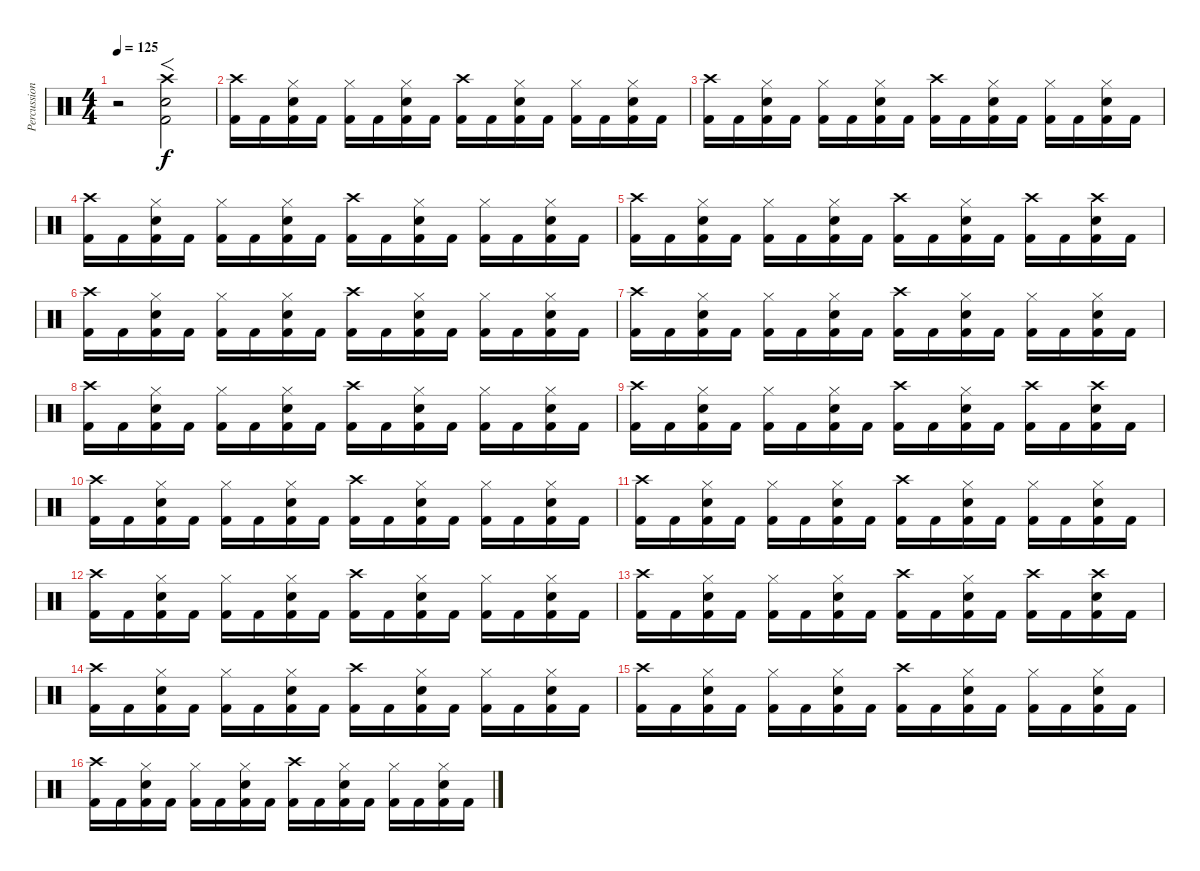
\track ("Percussion" "Percussion") {instrument percussion}
\staff {score}
\articulation defaults
\ts (4 4)
\tempo 125
\clef neutral
\ks c
r.2{dy f} ("Crash high (hit)" "Snare (hit) 2" "Kick (hit) 2").2{f} |
("Crash high (hit)" "Kick (hit) 2").16 "Kick (hit) 2".16 ("Hi-Hat (closed)" "Snare (hit) 2" "Kick (hit) 2").16 "Kick (hit) 2".16 ("Hi-Hat (closed)" "Kick (hit) 2").16 "Kick (hit) 2".16 ("Hi-Hat (closed)" "Snare (hit) 2" "Kick (hit) 2").16 "Kick (hit) 2".16 ("Crash high (hit)" "Kick (hit) 2").16 "Kick (hit) 2".16 ("Hi-Hat (closed)" "Snare (hit) 2" "Kick (hit) 2").16 "Kick (hit) 2".16 ("Hi-Hat (closed)" "Kick (hit) 2").16 "Kick (hit) 2".16 ("Hi-Hat (closed)" "Snare (hit) 2" "Kick (hit) 2").16 "Kick (hit) 2".16 |
("Crash high (hit)" "Kick (hit) 2").16 "Kick (hit) 2".16 ("Hi-Hat (closed)" "Snare (hit) 2" "Kick (hit) 2").16 "Kick (hit) 2".16 ("Hi-Hat (closed)" "Kick (hit) 2").16 "Kick (hit) 2".16 ("Hi-Hat (closed)" "Snare (hit) 2" "Kick (hit) 2").16 "Kick (hit) 2".16 ("Crash high (hit)" "Kick (hit) 2").16 "Kick (hit) 2".16 ("Hi-Hat (closed)" "Snare (hit) 2" "Kick (hit) 2").16 "Kick (hit) 2".16 ("Hi-Hat (closed)" "Kick (hit) 2").16 "Kick (hit) 2".16 ("Hi-Hat (closed)" "Snare (hit) 2" "Kick (hit) 2").16 "Kick (hit) 2".16 |
("Crash high (hit)" "Kick (hit) 2").16 "Kick (hit) 2".16 ("Hi-Hat (closed)" "Snare (hit) 2" "Kick (hit) 2").16 "Kick (hit) 2".16 ("Hi-Hat (closed)" "Kick (hit) 2").16 "Kick (hit) 2".16 ("Hi-Hat (closed)" "Snare (hit) 2" "Kick (hit) 2").16 "Kick (hit) 2".16 ("Crash high (hit)" "Kick (hit) 2").16 "Kick (hit) 2".16 ("Hi-Hat (closed)" "Snare (hit) 2" "Kick (hit) 2").16 "Kick (hit) 2".16 ("Hi-Hat (closed)" "Kick (hit) 2").16 "Kick (hit) 2".16 ("Hi-Hat (closed)" "Snare (hit) 2" "Kick (hit) 2").16 "Kick (hit) 2".16 |
("Crash high (hit)" "Kick (hit) 2").16 "Kick (hit) 2".16 ("Hi-Hat (closed)" "Snare (hit) 2" "Kick (hit) 2").16 "Kick (hit) 2".16 ("Hi-Hat (closed)" "Kick (hit) 2").16 "Kick (hit) 2".16 ("Hi-Hat (closed)" "Snare (hit) 2" "Kick (hit) 2").16 "Kick (hit) 2".16 ("Crash high (hit)" "Kick (hit) 2").16 "Kick (hit) 2".16 ("Hi-Hat (closed)" "Snare (hit) 2" "Kick (hit) 2").16 "Kick (hit) 2".16 ("Crash high (hit)" "Kick (hit) 2").16 "Kick (hit) 2".16 ("Crash high (hit)" "Snare (hit) 2" "Kick (hit) 2").16 "Kick (hit) 2".16 |
("Crash high (hit)" "Kick (hit) 2").16 "Kick (hit) 2".16 ("Hi-Hat (closed)" "Snare (hit) 2" "Kick (hit) 2").16 "Kick (hit) 2".16 ("Hi-Hat (closed)" "Kick (hit) 2").16 "Kick (hit) 2".16 ("Hi-Hat (closed)" "Snare (hit) 2" "Kick (hit) 2").16 "Kick (hit) 2".16 ("Crash high (hit)" "Kick (hit) 2").16 "Kick (hit) 2".16 ("Hi-Hat (closed)" "Snare (hit) 2" "Kick (hit) 2").16 "Kick (hit) 2".16 ("Hi-Hat (closed)" "Kick (hit) 2").16 "Kick (hit) 2".16 ("Hi-Hat (closed)" "Snare (hit) 2" "Kick (hit) 2").16 "Kick (hit) 2".16 |
("Crash high (hit)" "Kick (hit) 2").16 "Kick (hit) 2".16 ("Hi-Hat (closed)" "Snare (hit) 2" "Kick (hit) 2").16 "Kick (hit) 2".16 ("Hi-Hat (closed)" "Kick (hit) 2").16 "Kick (hit) 2".16 ("Hi-Hat (closed)" "Snare (hit) 2" "Kick (hit) 2").16 "Kick (hit) 2".16 ("Crash high (hit)" "Kick (hit) 2").16 "Kick (hit) 2".16 ("Hi-Hat (closed)" "Snare (hit) 2" "Kick (hit) 2").16 "Kick (hit) 2".16 ("Hi-Hat (closed)" "Kick (hit) 2").16 "Kick (hit) 2".16 ("Hi-Hat (closed)" "Snare (hit) 2" "Kick (hit) 2").16 "Kick (hit) 2".16 |
("Crash high (hit)" "Kick (hit) 2").16 "Kick (hit) 2".16 ("Hi-Hat (closed)" "Snare (hit) 2" "Kick (hit) 2").16 "Kick (hit) 2".16 ("Hi-Hat (closed)" "Kick (hit) 2").16 "Kick (hit) 2".16 ("Hi-Hat (closed)" "Snare (hit) 2" "Kick (hit) 2").16 "Kick (hit) 2".16 ("Crash high (hit)" "Kick (hit) 2").16 "Kick (hit) 2".16 ("Hi-Hat (closed)" "Snare (hit) 2" "Kick (hit) 2").16 "Kick (hit) 2".16 ("Hi-Hat (closed)" "Kick (hit) 2").16 "Kick (hit) 2".16 ("Hi-Hat (closed)" "Snare (hit) 2" "Kick (hit) 2").16 "Kick (hit) 2".16 |
("Crash high (hit)" "Kick (hit) 2").16 "Kick (hit) 2".16 ("Hi-Hat (closed)" "Snare (hit) 2" "Kick (hit) 2").16 "Kick (hit) 2".16 ("Hi-Hat (closed)" "Kick (hit) 2").16 "Kick (hit) 2".16 ("Hi-Hat (closed)" "Snare (hit) 2" "Kick (hit) 2").16 "Kick (hit) 2".16 ("Crash high (hit)" "Kick (hit) 2").16 "Kick (hit) 2".16 ("Hi-Hat (closed)" "Snare (hit) 2" "Kick (hit) 2").16 "Kick (hit) 2".16 ("Crash high (hit)" "Kick (hit) 2").16 "Kick (hit) 2".16 ("Crash high (hit)" "Snare (hit) 2" "Kick (hit) 2").16 "Kick (hit) 2".16 |
("Crash high (hit)" "Kick (hit) 2").16 "Kick (hit) 2".16 ("Hi-Hat (closed)" "Snare (hit) 2" "Kick (hit) 2").16 "Kick (hit) 2".16 ("Hi-Hat (closed)" "Kick (hit) 2").16 "Kick (hit) 2".16 ("Hi-Hat (closed)" "Snare (hit) 2" "Kick (hit) 2").16 "Kick (hit) 2".16 ("Crash high (hit)" "Kick (hit) 2").16 "Kick (hit) 2".16 ("Hi-Hat (closed)" "Snare (hit) 2" "Kick (hit) 2").16 "Kick (hit) 2".16 ("Hi-Hat (closed)" "Kick (hit) 2").16 "Kick (hit) 2".16 ("Hi-Hat (closed)" "Snare (hit) 2" "Kick (hit) 2").16 "Kick (hit) 2".16 |
("Crash high (hit)" "Kick (hit) 2").16 "Kick (hit) 2".16 ("Hi-Hat (closed)" "Snare (hit) 2" "Kick (hit) 2").16 "Kick (hit) 2".16 ("Hi-Hat (closed)" "Kick (hit) 2").16 "Kick (hit) 2".16 ("Hi-Hat (closed)" "Snare (hit) 2" "Kick (hit) 2").16 "Kick (hit) 2".16 ("Crash high (hit)" "Kick (hit) 2").16 "Kick (hit) 2".16 ("Hi-Hat (closed)" "Snare (hit) 2" "Kick (hit) 2").16 "Kick (hit) 2".16 ("Hi-Hat (closed)" "Kick (hit) 2").16 "Kick (hit) 2".16 ("Hi-Hat (closed)" "Snare (hit) 2" "Kick (hit) 2").16 "Kick (hit) 2".16 |
("Crash high (hit)" "Kick (hit) 2").16 "Kick (hit) 2".16 ("Hi-Hat (closed)" "Snare (hit) 2" "Kick (hit) 2").16 "Kick (hit) 2".16 ("Hi-Hat (closed)" "Kick (hit) 2").16 "Kick (hit) 2".16 ("Hi-Hat (closed)" "Snare (hit) 2" "Kick (hit) 2").16 "Kick (hit) 2".16 ("Crash high (hit)" "Kick (hit) 2").16 "Kick (hit) 2".16 ("Hi-Hat (closed)" "Snare (hit) 2" "Kick (hit) 2").16 "Kick (hit) 2".16 ("Hi-Hat (closed)" "Kick (hit) 2").16 "Kick (hit) 2".16 ("Hi-Hat (closed)" "Snare (hit) 2" "Kick (hit) 2").16 "Kick (hit) 2".16 |
("Crash high (hit)" "Kick (hit) 2").16 "Kick (hit) 2".16 ("Hi-Hat (closed)" "Snare (hit) 2" "Kick (hit) 2").16 "Kick (hit) 2".16 ("Hi-Hat (closed)" "Kick (hit) 2").16 "Kick (hit) 2".16 ("Hi-Hat (closed)" "Snare (hit) 2" "Kick (hit) 2").16 "Kick (hit) 2".16 ("Crash high (hit)" "Kick (hit) 2").16 "Kick (hit) 2".16 ("Hi-Hat (closed)" "Snare (hit) 2" "Kick (hit) 2").16 "Kick (hit) 2".16 ("Crash high (hit)" "Kick (hit) 2").16 "Kick (hit) 2".16 ("Crash high (hit)" "Snare (hit) 2" "Kick (hit) 2").16 "Kick (hit) 2".16 |
("Crash high (hit)" "Kick (hit) 2").16 "Kick (hit) 2".16 ("Hi-Hat (closed)" "Snare (hit) 2" "Kick (hit) 2").16 "Kick (hit) 2".16 ("Hi-Hat (closed)" "Kick (hit) 2").16 "Kick (hit) 2".16 ("Hi-Hat (closed)" "Snare (hit) 2" "Kick (hit) 2").16 "Kick (hit) 2".16 ("Crash high (hit)" "Kick (hit) 2").16 "Kick (hit) 2".16 ("Hi-Hat (closed)" "Snare (hit) 2" "Kick (hit) 2").16 "Kick (hit) 2".16 ("Hi-Hat (closed)" "Kick (hit) 2").16 "Kick (hit) 2".16 ("Hi-Hat (closed)" "Snare (hit) 2" "Kick (hit) 2").16 "Kick (hit) 2".16 |
("Crash high (hit)" "Kick (hit) 2").16 "Kick (hit) 2".16 ("Hi-Hat (closed)" "Snare (hit) 2" "Kick (hit) 2").16 "Kick (hit) 2".16 ("Hi-Hat (closed)" "Kick (hit) 2").16 "Kick (hit) 2".16 ("Hi-Hat (closed)" "Snare (hit) 2" "Kick (hit) 2").16 "Kick (hit) 2".16 ("Crash high (hit)" "Kick (hit) 2").16 "Kick (hit) 2".16 ("Hi-Hat (closed)" "Snare (hit) 2" "Kick (hit) 2").16 "Kick (hit) 2".16 ("Hi-Hat (closed)" "Kick (hit) 2").16 "Kick (hit) 2".16 ("Hi-Hat (closed)" "Snare (hit) 2" "Kick (hit) 2").16 "Kick (hit) 2".16 |
("Crash high (hit)" "Kick (hit) 2").16 "Kick (hit) 2".16 ("Hi-Hat (closed)" "Snare (hit) 2" "Kick (hit) 2").16 "Kick (hit) 2".16 ("Hi-Hat (closed)" "Kick (hit) 2").16 "Kick (hit) 2".16 ("Hi-Hat (closed)" "Snare (hit) 2" "Kick (hit) 2").16 "Kick (hit) 2".16 ("Crash high (hit)" "Kick (hit) 2").16 "Kick (hit) 2".16 ("Hi-Hat (closed)" "Snare (hit) 2" "Kick (hit) 2").16 "Kick (hit) 2".16 ("Hi-Hat (closed)" "Kick (hit) 2").16 "Kick (hit) 2".16 ("Hi-Hat (closed)" "Snare (hit) 2" "Kick (hit) 2").16 "Kick (hit) 2".16
